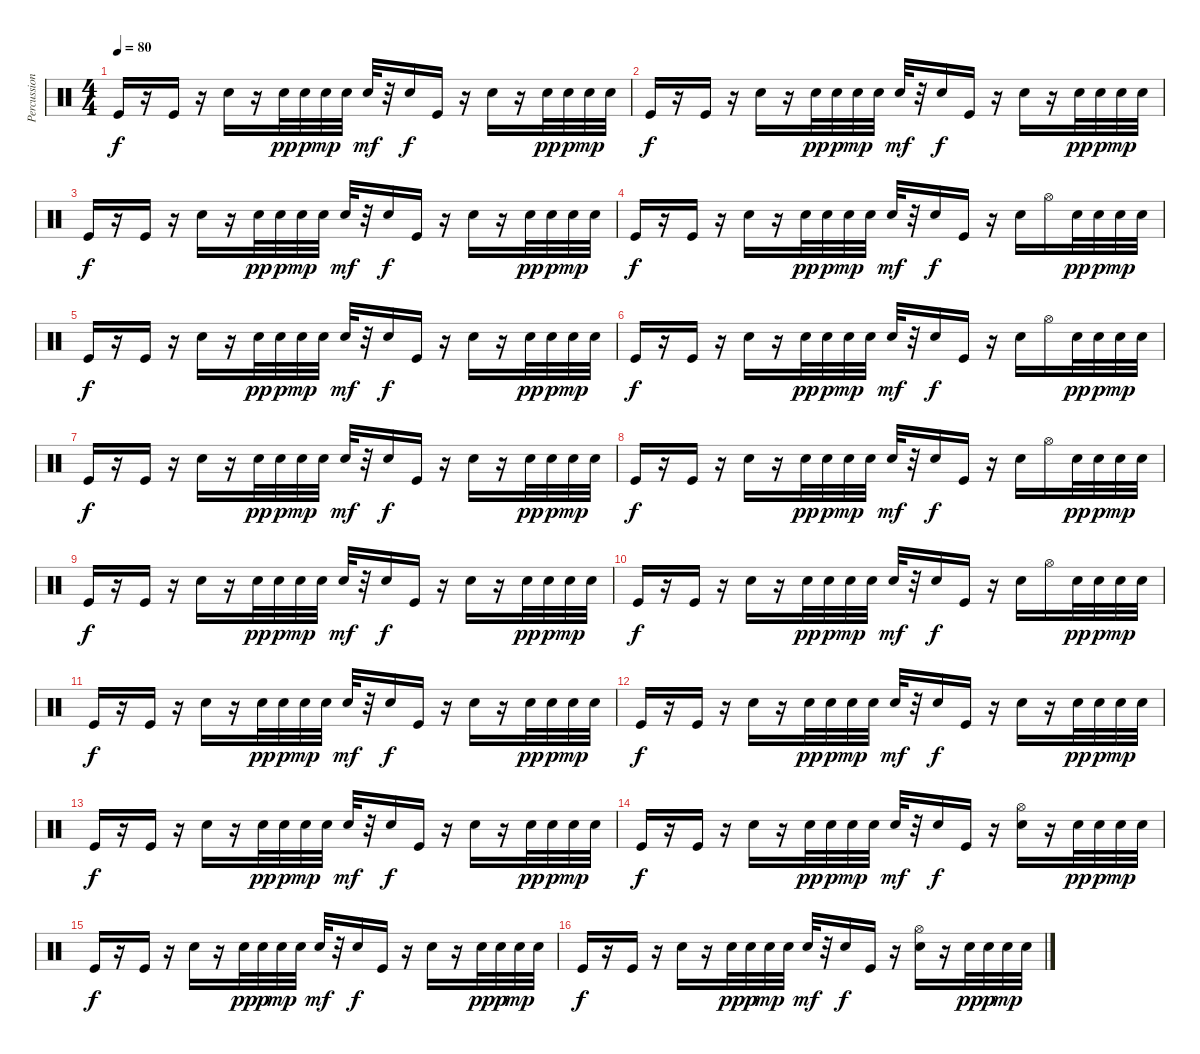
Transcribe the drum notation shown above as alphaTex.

\track ("Percussions" "Percussion") {instrument percussion}
\staff {score}
\articulation defaults
\ts (4 4)
\tempo 80
\clef neutral
\ks c "Kick (hit)".16{dy f}
r.16 "Kick (hit)".16 r.16 "Snare (hit) 2".16 r.16 "Snare (hit) 2".32{dy pp} "Snare (hit) 2".32{dy p} "Snare (hit) 2".32{dy mp} "Snare (hit) 2".32 "Snare (hit) 2".32{dy mf} r.32 "Electric Snare (hit)".16{dy f} "Kick (hit)".16 r.16 "Electric Snare (hit)".16 r.16 "Snare (hit) 2".32{dy pp} "Snare (hit) 2".32{dy p} "Snare (hit) 2".32{dy mp} "Snare (hit) 2".32 |
"Kick (hit)".16{dy f} r.16 "Kick (hit)".16 r.16 "Snare (hit) 2".16 r.16 "Snare (hit) 2".32{dy pp} "Snare (hit) 2".32{dy p} "Snare (hit) 2".32{dy mp} "Snare (hit) 2".32 "Snare (hit) 2".32{dy mf} r.32 "Electric Snare (hit)".16{dy f} "Kick (hit)".16 r.16 "Electric Snare (hit)".16 r.16 "Snare (hit) 2".32{dy pp} "Snare (hit) 2".32{dy p} "Snare (hit) 2".32{dy mp} "Snare (hit) 2".32 |
"Kick (hit)".16{dy f} r.16 "Kick (hit)".16 r.16 "Snare (hit) 2".16 r.16 "Snare (hit) 2".32{dy pp} "Snare (hit) 2".32{dy p} "Snare (hit) 2".32{dy mp} "Snare (hit) 2".32 "Snare (hit) 2".32{dy mf} r.32 "Electric Snare (hit)".16{dy f} "Kick (hit)".16 r.16 "Electric Snare (hit)".16 r.16 "Snare (hit) 2".32{dy pp} "Snare (hit) 2".32{dy p} "Snare (hit) 2".32{dy mp} "Snare (hit) 2".32 |
"Kick (hit)".16{dy f} r.16 "Kick (hit)".16 r.16 "Snare (hit) 2".16 r.16 "Snare (hit) 2".32{dy pp} "Snare (hit) 2".32{dy p} "Snare (hit) 2".32{dy mp} "Snare (hit) 2".32 "Snare (hit) 2".32{dy mf} r.32 "Electric Snare (hit)".16{dy f} "Kick (hit)".16 r.16 "Electric Snare (hit)".16 "Hi-Hat (open)".16 "Snare (hit) 2".32{dy pp} "Snare (hit) 2".32{dy p} "Snare (hit) 2".32{dy mp} "Snare (hit) 2".32 |
"Kick (hit)".16{dy f} r.16 "Kick (hit)".16 r.16 "Snare (hit) 2".16 r.16 "Snare (hit) 2".32{dy pp} "Snare (hit) 2".32{dy p} "Snare (hit) 2".32{dy mp} "Snare (hit) 2".32 "Snare (hit) 2".32{dy mf} r.32 "Electric Snare (hit)".16{dy f} "Kick (hit)".16 r.16 "Electric Snare (hit)".16 r.16 "Snare (hit) 2".32{dy pp} "Snare (hit) 2".32{dy p} "Snare (hit) 2".32{dy mp} "Snare (hit) 2".32 |
"Kick (hit)".16{dy f} r.16 "Kick (hit)".16 r.16 "Snare (hit) 2".16 r.16 "Snare (hit) 2".32{dy pp} "Snare (hit) 2".32{dy p} "Snare (hit) 2".32{dy mp} "Snare (hit) 2".32 "Snare (hit) 2".32{dy mf} r.32 "Electric Snare (hit)".16{dy f} "Kick (hit)".16 r.16 "Electric Snare (hit)".16 "Hi-Hat (open)".16 "Snare (hit) 2".32{dy pp} "Snare (hit) 2".32{dy p} "Snare (hit) 2".32{dy mp} "Snare (hit) 2".32 |
"Kick (hit)".16{dy f} r.16 "Kick (hit)".16 r.16 "Snare (hit) 2".16 r.16 "Snare (hit) 2".32{dy pp} "Snare (hit) 2".32{dy p} "Snare (hit) 2".32{dy mp} "Snare (hit) 2".32 "Snare (hit) 2".32{dy mf} r.32 "Electric Snare (hit)".16{dy f} "Kick (hit)".16 r.16 "Electric Snare (hit)".16 r.16 "Snare (hit) 2".32{dy pp} "Snare (hit) 2".32{dy p} "Snare (hit) 2".32{dy mp} "Snare (hit) 2".32 |
"Kick (hit)".16{dy f} r.16 "Kick (hit)".16 r.16 "Snare (hit) 2".16 r.16 "Snare (hit) 2".32{dy pp} "Snare (hit) 2".32{dy p} "Snare (hit) 2".32{dy mp} "Snare (hit) 2".32 "Snare (hit) 2".32{dy mf} r.32 "Electric Snare (hit)".16{dy f} "Kick (hit)".16 r.16 "Electric Snare (hit)".16 "Hi-Hat (open)".16 "Snare (hit) 2".32{dy pp} "Snare (hit) 2".32{dy p} "Snare (hit) 2".32{dy mp} "Snare (hit) 2".32 |
"Kick (hit)".16{dy f} r.16 "Kick (hit)".16 r.16 "Snare (hit) 2".16 r.16 "Snare (hit) 2".32{dy pp} "Snare (hit) 2".32{dy p} "Snare (hit) 2".32{dy mp} "Snare (hit) 2".32 "Snare (hit) 2".32{dy mf} r.32 "Electric Snare (hit)".16{dy f} "Kick (hit)".16 r.16 "Electric Snare (hit)".16 r.16 "Snare (hit) 2".32{dy pp} "Snare (hit) 2".32{dy p} "Snare (hit) 2".32{dy mp} "Snare (hit) 2".32 |
"Kick (hit)".16{dy f} r.16 "Kick (hit)".16 r.16 "Snare (hit) 2".16 r.16 "Snare (hit) 2".32{dy pp} "Snare (hit) 2".32{dy p} "Snare (hit) 2".32{dy mp} "Snare (hit) 2".32 "Snare (hit) 2".32{dy mf} r.32 "Electric Snare (hit)".16{dy f} "Kick (hit)".16 r.16 "Electric Snare (hit)".16 "Hi-Hat (open)".16 "Snare (hit) 2".32{dy pp} "Snare (hit) 2".32{dy p} "Snare (hit) 2".32{dy mp} "Snare (hit) 2".32 |
"Kick (hit)".16{dy f} r.16 "Kick (hit)".16 r.16 "Snare (hit) 2".16 r.16 "Snare (hit) 2".32{dy pp} "Snare (hit) 2".32{dy p} "Snare (hit) 2".32{dy mp} "Snare (hit) 2".32 "Snare (hit) 2".32{dy mf} r.32 "Electric Snare (hit)".16{dy f} "Kick (hit)".16 r.16 "Electric Snare (hit)".16 r.16 "Snare (hit) 2".32{dy pp} "Snare (hit) 2".32{dy p} "Snare (hit) 2".32{dy mp} "Snare (hit) 2".32 |
"Kick (hit)".16{dy f} r.16 "Kick (hit)".16 r.16 "Snare (hit) 2".16 r.16 "Snare (hit) 2".32{dy pp} "Snare (hit) 2".32{dy p} "Snare (hit) 2".32{dy mp} "Snare (hit) 2".32 "Snare (hit) 2".32{dy mf} r.32 "Electric Snare (hit)".16{dy f} "Kick (hit)".16 r.16 "Electric Snare (hit)".16 r.16 "Snare (hit) 2".32{dy pp} "Snare (hit) 2".32{dy p} "Snare (hit) 2".32{dy mp} "Snare (hit) 2".32 |
"Kick (hit)".16{dy f} r.16 "Kick (hit)".16 r.16 "Snare (hit) 2".16 r.16 "Snare (hit) 2".32{dy pp} "Snare (hit) 2".32{dy p} "Snare (hit) 2".32{dy mp} "Snare (hit) 2".32 "Snare (hit) 2".32{dy mf} r.32 "Electric Snare (hit)".16{dy f} "Kick (hit)".16 r.16 "Electric Snare (hit)".16 r.16 "Snare (hit) 2".32{dy pp} "Snare (hit) 2".32{dy p} "Snare (hit) 2".32{dy mp} "Snare (hit) 2".32 |
"Kick (hit)".16{dy f} r.16 "Kick (hit)".16 r.16 "Snare (hit) 2".16 r.16 "Snare (hit) 2".32{dy pp} "Snare (hit) 2".32{dy p} "Snare (hit) 2".32{dy mp} "Snare (hit) 2".32 "Snare (hit) 2".32{dy mf} r.32 "Electric Snare (hit)".16{dy f} "Kick (hit)".16 r.16 ("Hi-Hat (open)" "Electric Snare (hit)").16 r.16 "Snare (hit) 2".32{dy pp} "Snare (hit) 2".32{dy p} "Snare (hit) 2".32{dy mp} "Snare (hit) 2".32 |
"Kick (hit)".16{dy f} r.16 "Kick (hit)".16 r.16 "Snare (hit) 2".16 r.16 "Snare (hit) 2".32{dy pp} "Snare (hit) 2".32{dy p} "Snare (hit) 2".32{dy mp} "Snare (hit) 2".32 "Snare (hit) 2".32{dy mf} r.32 "Electric Snare (hit)".16{dy f} "Kick (hit)".16 r.16 "Electric Snare (hit)".16 r.16 "Snare (hit) 2".32{dy pp} "Snare (hit) 2".32{dy p} "Snare (hit) 2".32{dy mp} "Snare (hit) 2".32 |
"Kick (hit)".16{dy f} r.16 "Kick (hit)".16 r.16 "Snare (hit) 2".16 r.16 "Snare (hit) 2".32{dy pp} "Snare (hit) 2".32{dy p} "Snare (hit) 2".32{dy mp} "Snare (hit) 2".32 "Snare (hit) 2".32{dy mf} r.32 "Electric Snare (hit)".16{dy f} "Kick (hit)".16 r.16 ("Hi-Hat (open)" "Electric Snare (hit)").16 r.16 "Snare (hit) 2".32{dy pp} "Snare (hit) 2".32{dy p} "Snare (hit) 2".32{dy mp} "Snare (hit) 2".32
